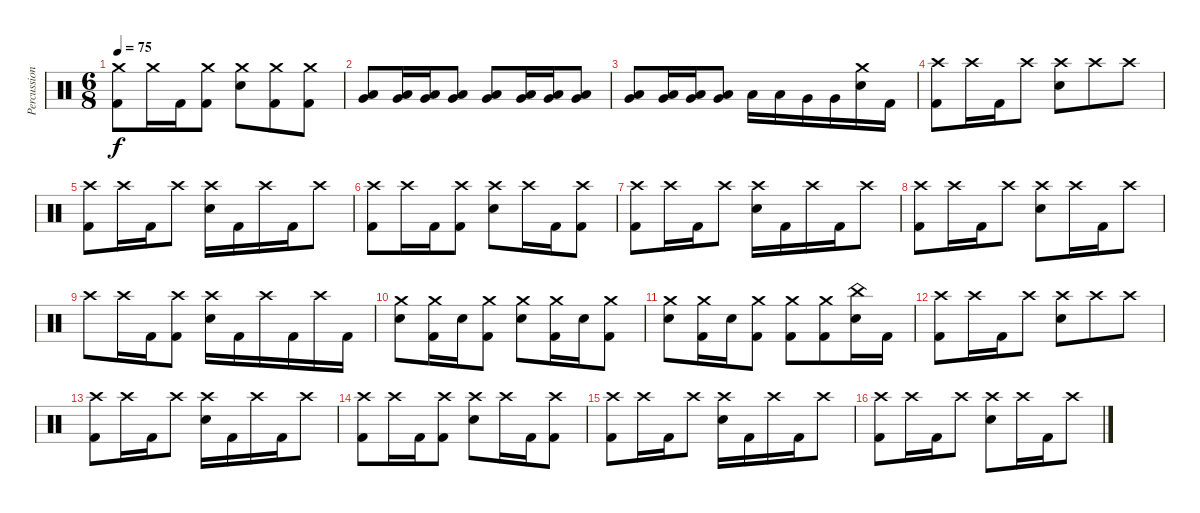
\track ("Percussions" "Percussion") {instrument percussion}
\staff {score}
\articulation defaults
\ts (6 8)
\tempo 75
\clef neutral
\ks c
("Crash medium (hit)" "Kick (hit) 2").8{dy f} "Crash medium (hit)".16 "Kick (hit) 2".16 ("Crash medium (hit)" "Kick (hit) 2").8 ("Crash medium (hit)" "Electric Snare (hit)").8 ("Crash medium (hit)" "Kick (hit) 2").8 ("Crash medium (hit)" "Kick (hit) 2").8 |
("Low Tom (hit)" "Very Low Tom (hit)").8 ("Low Tom (hit)" "Very Low Tom (hit)").16 ("Low Tom (hit)" "Very Low Tom (hit)").16 ("Low Tom (hit)" "Very Low Tom (hit)").8 ("Low Tom (hit)" "Very Low Tom (hit)").8 ("Low Tom (hit)" "Very Low Tom (hit)").16 ("Low Tom (hit)" "Very Low Tom (hit)").16 ("Low Tom (hit)" "Very Low Tom (hit)").8 |
("Low Tom (hit)" "Very Low Tom (hit)").8 ("Low Tom (hit)" "Very Low Tom (hit)").16 ("Low Tom (hit)" "Very Low Tom (hit)").16 ("Low Tom (hit)" "Very Low Tom (hit)").8 "Low Tom (hit)".16 "Low Tom (hit)".16 "Very Low Tom (hit)".16 "Very Low Tom (hit)".16 ("Crash medium (hit)" "Electric Snare (hit)").16 "Kick (hit) 2".16 |
("Crash high (hit)" "Kick (hit) 2").8 "Crash high (hit)".16 "Kick (hit) 2".16 "Crash high (hit)".8 ("Crash high (hit)" "Electric Snare (hit)").8 "Crash high (hit)".8 "Crash high (hit)".8 |
("Crash high (hit)" "Kick (hit) 2").8 "Crash high (hit)".16 "Kick (hit) 2".16 "Crash high (hit)".8 ("Crash high (hit)" "Electric Snare (hit)").16 "Kick (hit) 2".16 "Crash high (hit)".16 "Kick (hit) 2".16 "Crash high (hit)".8 |
("Crash high (hit)" "Kick (hit) 2").8 "Crash high (hit)".16 "Kick (hit) 2".16 ("Crash high (hit)" "Kick (hit) 2").8 ("Crash high (hit)" "Electric Snare (hit)").8 "Crash high (hit)".16 "Kick (hit) 2".16 ("Crash high (hit)" "Kick (hit) 2").8 |
("Crash high (hit)" "Kick (hit) 2").8 "Crash high (hit)".16 "Kick (hit) 2".16 "Crash high (hit)".8 ("Crash high (hit)" "Electric Snare (hit)").16 "Kick (hit) 2".16 "Crash high (hit)".16 "Kick (hit) 2".16 "Crash high (hit)".8 |
("Crash high (hit)" "Kick (hit) 2").8 "Crash high (hit)".16 "Kick (hit) 2".16 "Crash high (hit)".8 ("Crash high (hit)" "Electric Snare (hit)").8 "Crash high (hit)".16 "Kick (hit) 2".16 "Crash high (hit)".8 |
"Crash high (hit)".8 "Crash high (hit)".16 "Kick (hit) 2".16 ("Crash high (hit)" "Kick (hit) 2").8 ("Crash high (hit)" "Electric Snare (hit)").16 "Kick (hit) 2".16 "Crash high (hit)".16 "Kick (hit) 2".16 "Crash high (hit)".16 "Kick (hit) 2".16 |
("Crash medium (hit)" "Electric Snare (hit)").8 ("Crash medium (hit)" "Kick (hit) 2").16 "Electric Snare (hit)".16 ("Crash medium (hit)" "Kick (hit) 2").8 ("Crash medium (hit)" "Electric Snare (hit)").8 ("Crash medium (hit)" "Kick (hit) 2").16 "Electric Snare (hit)".16 ("Crash medium (hit)" "Kick (hit) 2").8 |
("Crash medium (hit)" "Electric Snare (hit)").8 ("Crash medium (hit)" "Kick (hit) 2").16 "Electric Snare (hit)".16 ("Crash medium (hit)" "Kick (hit) 2").8 ("Crash medium (hit)" "Kick (hit) 2").8 ("Crash medium (hit)" "Kick (hit) 2").8 ("China (hit)" "Electric Snare (hit)").16 "Kick (hit) 2".16 |
("Crash high (hit)" "Kick (hit) 2").8 "Crash high (hit)".16 "Kick (hit) 2".16 "Crash high (hit)".8 ("Crash high (hit)" "Electric Snare (hit)").8 "Crash high (hit)".8 "Crash high (hit)".8 |
("Crash high (hit)" "Kick (hit) 2").8 "Crash high (hit)".16 "Kick (hit) 2".16 "Crash high (hit)".8 ("Crash high (hit)" "Electric Snare (hit)").16 "Kick (hit) 2".16 "Crash high (hit)".16 "Kick (hit) 2".16 "Crash high (hit)".8 |
("Crash high (hit)" "Kick (hit) 2").8 "Crash high (hit)".16 "Kick (hit) 2".16 ("Crash high (hit)" "Kick (hit) 2").8 ("Crash high (hit)" "Electric Snare (hit)").8 "Crash high (hit)".16 "Kick (hit) 2".16 ("Crash high (hit)" "Kick (hit) 2").8 |
("Crash high (hit)" "Kick (hit) 2").8 "Crash high (hit)".16 "Kick (hit) 2".16 "Crash high (hit)".8 ("Crash high (hit)" "Electric Snare (hit)").16 "Kick (hit) 2".16 "Crash high (hit)".16 "Kick (hit) 2".16 "Crash high (hit)".8 |
("Crash high (hit)" "Kick (hit) 2").8 "Crash high (hit)".16 "Kick (hit) 2".16 "Crash high (hit)".8 ("Crash high (hit)" "Electric Snare (hit)").8 "Crash high (hit)".16 "Kick (hit) 2".16 "Crash high (hit)".8
